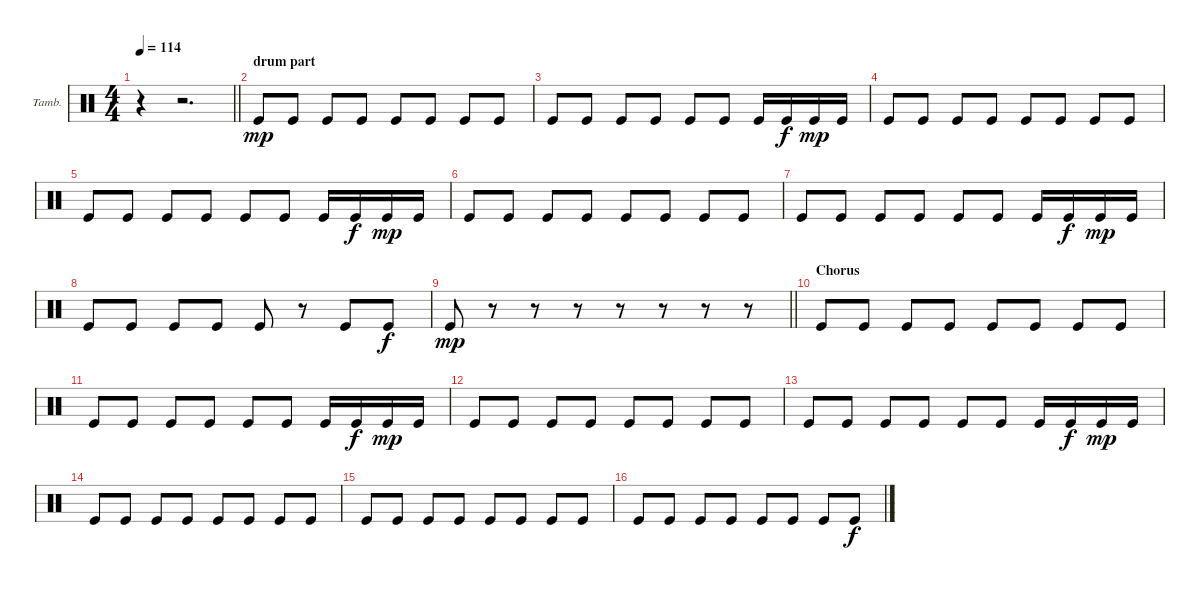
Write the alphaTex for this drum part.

\bracketExtendMode groupsimilarinstruments
\firstSystemTrackNameOrientation horizontal
\otherSystemsTrackNameOrientation horizontal
\track ("Tambourine" "Tamb.") {instrument percussion}
\staff {score}
\articulation defaults
\ts (4 4)
\tempo 114
\clef neutral
\barLineRight lightlight
\ks c
r.4{dy f} r.2{d} |
\section ("" "drum part")
"Kick (hit)".8{dy mp} "Kick (hit)".8 "Kick (hit)".8 "Kick (hit)".8 "Kick (hit)".8 "Kick (hit)".8 "Kick (hit)".8 "Kick (hit)".8 |
"Kick (hit)".8 "Kick (hit)".8 "Kick (hit)".8 "Kick (hit)".8 "Kick (hit)".8 "Kick (hit)".8 "Kick (hit)".16 "Kick (hit)".16{dy f} "Kick (hit)".16{dy mp} "Kick (hit)".16 |
"Kick (hit)".8 "Kick (hit)".8 "Kick (hit)".8 "Kick (hit)".8 "Kick (hit)".8 "Kick (hit)".8 "Kick (hit)".8 "Kick (hit)".8 |
"Kick (hit)".8 "Kick (hit)".8 "Kick (hit)".8 "Kick (hit)".8 "Kick (hit)".8 "Kick (hit)".8 "Kick (hit)".16 "Kick (hit)".16{dy f} "Kick (hit)".16{dy mp} "Kick (hit)".16 |
"Kick (hit)".8 "Kick (hit)".8 "Kick (hit)".8 "Kick (hit)".8 "Kick (hit)".8 "Kick (hit)".8 "Kick (hit)".8 "Kick (hit)".8 |
"Kick (hit)".8 "Kick (hit)".8 "Kick (hit)".8 "Kick (hit)".8 "Kick (hit)".8 "Kick (hit)".8 "Kick (hit)".16 "Kick (hit)".16{dy f} "Kick (hit)".16{dy mp} "Kick (hit)".16 |
"Kick (hit)".8 "Kick (hit)".8 "Kick (hit)".8 "Kick (hit)".8 "Kick (hit)".8 r.8 "Kick (hit)".8 "Kick (hit)".8{dy f} |
\barLineRight lightlight "Kick (hit)".8{dy mp}
r.8 r.8 r.8 r.8 r.8 r.8 r.8 |
\section ("" "Chorus")
"Kick (hit)".8 "Kick (hit)".8 "Kick (hit)".8 "Kick (hit)".8 "Kick (hit)".8 "Kick (hit)".8 "Kick (hit)".8 "Kick (hit)".8 |
"Kick (hit)".8 "Kick (hit)".8 "Kick (hit)".8 "Kick (hit)".8 "Kick (hit)".8 "Kick (hit)".8 "Kick (hit)".16 "Kick (hit)".16{dy f} "Kick (hit)".16{dy mp} "Kick (hit)".16 |
"Kick (hit)".8 "Kick (hit)".8 "Kick (hit)".8 "Kick (hit)".8 "Kick (hit)".8 "Kick (hit)".8 "Kick (hit)".8 "Kick (hit)".8 |
"Kick (hit)".8 "Kick (hit)".8 "Kick (hit)".8 "Kick (hit)".8 "Kick (hit)".8 "Kick (hit)".8 "Kick (hit)".16 "Kick (hit)".16{dy f} "Kick (hit)".16{dy mp} "Kick (hit)".16 |
"Kick (hit)".8 "Kick (hit)".8 "Kick (hit)".8 "Kick (hit)".8 "Kick (hit)".8 "Kick (hit)".8 "Kick (hit)".8 "Kick (hit)".8 |
"Kick (hit)".8 "Kick (hit)".8 "Kick (hit)".8 "Kick (hit)".8 "Kick (hit)".8 "Kick (hit)".8 "Kick (hit)".8 "Kick (hit)".8 |
"Kick (hit)".8 "Kick (hit)".8 "Kick (hit)".8 "Kick (hit)".8 "Kick (hit)".8 "Kick (hit)".8 "Kick (hit)".8 "Kick (hit)".8{dy f}
